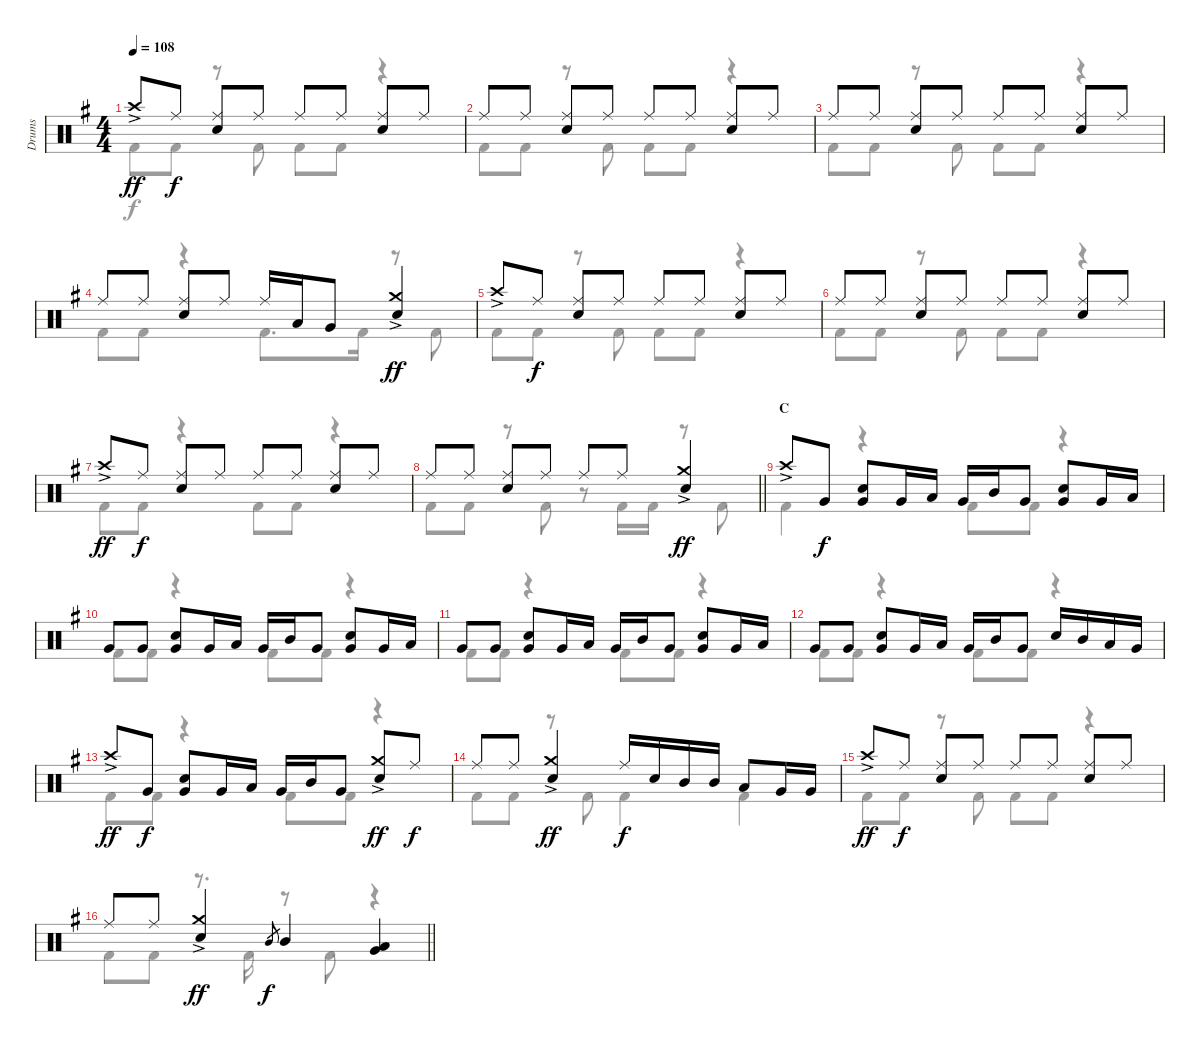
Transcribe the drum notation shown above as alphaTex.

\track ("Drums" "Drums") {instrument percussion}
\staff {score}
\articulation defaults
\voice
\ts (4 4)
\tempo 108
\clef neutral
\ks g "Crash high (hit)"{ac}.8{dy ff} "Ride (middle)".8{dy f}
("Ride (middle)" "Snare (hit) 2").8 "Ride (middle)".8 "Ride (middle)".8 "Ride (middle)".8 ("Ride (middle)" "Snare (hit) 2").8 "Ride (middle)".8 |
"Ride (middle)".8 "Ride (middle)".8 ("Ride (middle)" "Snare (hit) 2").8 "Ride (middle)".8 "Ride (middle)".8 "Ride (middle)".8 ("Ride (middle)" "Snare (hit) 2").8 "Ride (middle)".8 |
"Ride (middle)".8 "Ride (middle)".8 ("Ride (middle)" "Snare (hit) 2").8 "Ride (middle)".8 "Ride (middle)".8 "Ride (middle)".8 ("Ride (middle)" "Snare (hit) 2").8 "Ride (middle)".8 |
"Ride (middle)".8 "Ride (middle)".8 ("Ride (middle)" "Snare (hit) 2").8 "Ride (middle)".8 "Ride (middle)".16 "Low Tom (hit)".16 "Very Low Tom (hit)".8 ("Crash medium (hit)"{ac} "Snare (hit) 2").4{dy ff} |
"Crash high (hit)"{ac}.8 "Ride (middle)".8{dy f} ("Ride (middle)" "Snare (hit) 2").8 "Ride (middle)".8 "Ride (middle)".8 "Ride (middle)".8 ("Ride (middle)" "Snare (hit) 2").8 "Ride (middle)".8 |
"Ride (middle)".8 "Ride (middle)".8 ("Ride (middle)" "Snare (hit) 2").8 "Ride (middle)".8 "Ride (middle)".8 "Ride (middle)".8 ("Ride (middle)" "Snare (hit) 2").8 "Ride (middle)".8 |
"Crash high (hit)"{ac}.8{dy ff} "Ride (middle)".8{dy f} ("Ride (middle)" "Snare (hit) 2").8 "Ride (middle)".8 "Ride (middle)".8 "Ride (middle)".8 ("Ride (middle)" "Snare (hit) 2").8 "Ride (middle)".8 |
\barLineRight lightlight "Ride (middle)".8 "Ride (middle)".8
("Ride (middle)" "Snare (hit) 2").8 "Ride (middle)".8 "Ride (middle)".8 "Ride (middle)".8 ("Crash medium (hit)"{ac} "Snare (hit) 2").4{dy ff} |
\section ("" "C")
"Crash high (hit)"{ac}.8 "Very Low Tom (hit)".8{dy f} ("Very Low Tom (hit)" "Snare (hit) 2").8 "Very Low Tom (hit)".16 "Low Tom (hit)".16 "Very Low Tom (hit)".16 "Mid Tom (hit)".16 "Very Low Tom (hit)".8 ("Very Low Tom (hit)" "Snare (hit) 2").8 "Very Low Tom (hit)".16 "Low Tom (hit)".16 |
"Very Low Tom (hit)".8 "Very Low Tom (hit)".8 ("Very Low Tom (hit)" "Snare (hit) 2").8 "Very Low Tom (hit)".16 "Low Tom (hit)".16 "Very Low Tom (hit)".16 "Mid Tom (hit)".16 "Very Low Tom (hit)".8 ("Very Low Tom (hit)" "Snare (hit) 2").8 "Very Low Tom (hit)".16 "Low Tom (hit)".16 |
"Very Low Tom (hit)".8 "Very Low Tom (hit)".8 ("Very Low Tom (hit)" "Snare (hit) 2").8 "Very Low Tom (hit)".16 "Low Tom (hit)".16 "Very Low Tom (hit)".16 "Mid Tom (hit)".16 "Very Low Tom (hit)".8 ("Very Low Tom (hit)" "Snare (hit) 2").8 "Very Low Tom (hit)".16 "Low Tom (hit)".16 |
"Very Low Tom (hit)".8 "Very Low Tom (hit)".8 ("Very Low Tom (hit)" "Snare (hit) 2").8 "Very Low Tom (hit)".16 "Low Tom (hit)".16 "Very Low Tom (hit)".16 "Mid Tom (hit)".16 "Very Low Tom (hit)".8 "Snare (hit) 2".16 "Mid Tom (hit)".16 "Low Tom (hit)".16 "Very Low Tom (hit)".16 |
"Crash high (hit)"{ac}.8{dy ff} "Very Low Tom (hit)".8{dy f} ("Very Low Tom (hit)" "Snare (hit) 2").8 "Very Low Tom (hit)".16 "Low Tom (hit)".16 "Very Low Tom (hit)".16 "Mid Tom (hit)".16 "Very Low Tom (hit)".8 ("Crash medium (hit)"{ac} "Snare (hit) 2").8{dy ff} "Ride (middle)".8{dy f} |
"Ride (middle)".8 "Ride (middle)".8 ("Crash medium (hit)"{ac} "Snare (hit) 2").4{dy ff} "Ride (middle)".16{dy f} "Snare (hit) 2".16 "Mid Tom (hit)".16 "Mid Tom (hit)".16 "Low Tom (hit)".8 "Very Low Tom (hit)".16 "Very Low Tom (hit)".16 |
"Crash high (hit)"{ac}.8{dy ff} "Ride (middle)".8{dy f} ("Ride (middle)" "Snare (hit) 2").8 "Ride (middle)".8 "Ride (middle)".8 "Ride (middle)".8 ("Ride (middle)" "Snare (hit) 2").8 "Ride (middle)".8 |
\barLineRight lightlight "Ride (middle)".8 "Ride (middle)".8
("Crash medium (hit)"{ac} "Snare (hit) 2").4{dy ff} "Mid Tom (hit)".8{gr dy f} "Mid Tom (hit)".4 ("Low Tom (hit)" "Very Low Tom (hit)").4
\voice
\clef neutral
\ottava regular
\simile none
\ks g "Kick (hit) 2".8{dy f} "Kick (hit) 2".8
r.8 "Kick (hit) 2".8 "Kick (hit) 2".8 "Kick (hit) 2".8 r.4 |
"Kick (hit) 2".8 "Kick (hit) 2".8 r.8 "Kick (hit) 2".8 "Kick (hit) 2".8 "Kick (hit) 2".8 r.4 |
"Kick (hit) 2".8 "Kick (hit) 2".8 r.8 "Kick (hit) 2".8 "Kick (hit) 2".8 "Kick (hit) 2".8 r.4 |
"Kick (hit) 2".8 "Kick (hit) 2".8 r.4 "Kick (hit) 2".8{d} "Kick (hit) 2".16 r.8 "Kick (hit) 2".8 |
"Kick (hit) 2".8 "Kick (hit) 2".8 r.8 "Kick (hit) 2".8 "Kick (hit) 2".8 "Kick (hit) 2".8 r.4 |
"Kick (hit) 2".8 "Kick (hit) 2".8 r.8 "Kick (hit) 2".8 "Kick (hit) 2".8 "Kick (hit) 2".8 r.4 |
"Kick (hit) 2".8 "Kick (hit) 2".8 r.4 "Kick (hit) 2".8 "Kick (hit) 2".8 r.4 |
\barLineRight lightlight "Kick (hit) 2".8 "Kick (hit) 2".8
r.8 "Kick (hit) 2".8 r.8 "Kick (hit) 2".16 "Kick (hit) 2".16 r.8 "Kick (hit) 2".8 |
"Kick (hit) 2".4 r.4 "Kick (hit) 2".8 "Kick (hit) 2".8 r.4 |
"Kick (hit) 2".8 "Kick (hit) 2".8 r.4 "Kick (hit) 2".8 "Kick (hit) 2".8 r.4 |
"Kick (hit) 2".8 "Kick (hit) 2".8 r.4 "Kick (hit) 2".8 "Kick (hit) 2".8 r.4 |
"Kick (hit) 2".8 "Kick (hit) 2".8 r.4 "Kick (hit) 2".8 "Kick (hit) 2".8 r.4 |
"Kick (hit) 2".8 "Kick (hit) 2".8 r.4 "Kick (hit) 2".8 "Kick (hit) 2".8 r.4 |
"Kick (hit) 2".8 "Kick (hit) 2".8 r.8 "Kick (hit) 2".8 "Kick (hit) 2".4 "Kick (hit) 2".4 |
"Kick (hit) 2".8 "Kick (hit) 2".8 r.8 "Kick (hit) 2".8 "Kick (hit) 2".8 "Kick (hit) 2".8 r.4 |
\barLineRight lightlight "Kick (hit) 2".8 "Kick (hit) 2".8
r.8{d} "Kick (hit) 2".16 r.8 "Kick (hit) 2".8 r.4
